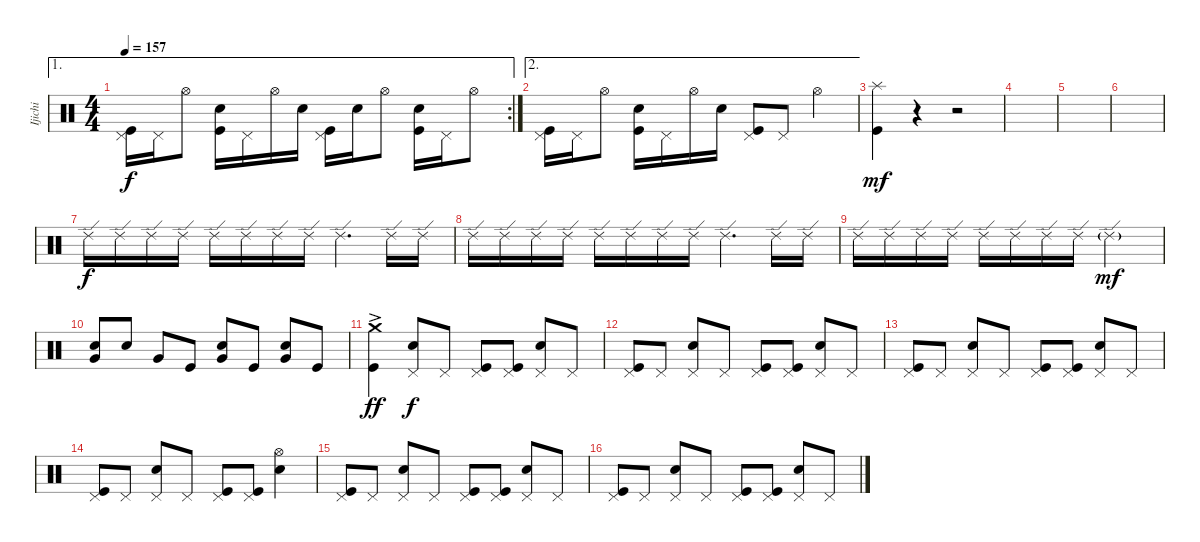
\track ("Ijichi" "Ijichi") {instrument percussion}
\staff {score}
\articulation defaults
\ae 1
\rc 2
\ts (4 4)
\tempo 157
\clef neutral
\ks c
("Pedal Hi-Hat (hit)" "Kick (hit)").16{dy f} "Pedal Hi-Hat (hit)".16 "Hi-Hat (open)".8 ("Snare (hit) 2" "Kick (hit)").16 "Pedal Hi-Hat (hit)".16 "Hi-Hat (open)".16 "Snare (hit) 2".16 ("Pedal Hi-Hat (hit)" "Kick (hit)").16 "Snare (hit) 2".16 "Hi-Hat (open)".8 ("Snare (hit) 2" "Kick (hit)").16 "Pedal Hi-Hat (hit)".16 "Hi-Hat (open)".8 |
\ae 2
("Pedal Hi-Hat (hit)" "Kick (hit)").16 "Pedal Hi-Hat (hit)".16 "Hi-Hat (open)".8 ("Snare (hit) 2" "Kick (hit)").16 "Pedal Hi-Hat (hit)".16 "Hi-Hat (open)".16 "Snare (hit) 2".16 ("Pedal Hi-Hat (hit)" "Kick (hit)").8 "Pedal Hi-Hat (hit)".8 "Hi-Hat (open)".4 |
("Splash (hit)" "Kick (hit)").4{dy mf} r.4 r.2 |
|
|
|
"Ride (edge) 2".16{dy f} "Ride (edge) 2".16 "Ride (edge) 2".16 "Ride (edge) 2".16 "Ride (edge) 2".16 "Ride (edge) 2".16 "Ride (edge) 2".16 "Ride (edge) 2".16 "Ride (edge) 2".4{d} "Ride (edge) 2".16 "Ride (edge) 2".16 |
"Ride (edge) 2".16 "Ride (edge) 2".16 "Ride (edge) 2".16 "Ride (edge) 2".16 "Ride (edge) 2".16 "Ride (edge) 2".16 "Ride (edge) 2".16 "Ride (edge) 2".16 "Ride (edge) 2".4{d} "Ride (edge) 2".16 "Ride (edge) 2".16 |
"Ride (edge) 2".16 "Ride (edge) 2".16 "Ride (edge) 2".16 "Ride (edge) 2".16 "Ride (edge) 2".16 "Ride (edge) 2".16 "Ride (edge) 2".16 "Ride (edge) 2".16 "Ride (edge) 2"{g}.2{dy mf} |
("Snare (hit) 2" "Very Low Tom (hit)").8 "Snare (hit) 2".8 "Very Low Tom (hit)".8 "Kick (hit)".8 ("Snare (hit) 2" "Very Low Tom (hit)").8 "Kick (hit)".8 ("Snare (hit) 2" "Very Low Tom (hit)").8 "Kick (hit)".8 |
("Crash medium (hit)"{ac} "Kick (hit)").4{dy ff} ("Pedal Hi-Hat (hit)" "Snare (hit) 2").8{dy f} "Pedal Hi-Hat (hit)".8 ("Pedal Hi-Hat (hit)" "Kick (hit)").8 ("Pedal Hi-Hat (hit)" "Kick (hit)").8 ("Pedal Hi-Hat (hit)" "Snare (hit) 2").8 "Pedal Hi-Hat (hit)".8 |
("Pedal Hi-Hat (hit)" "Kick (hit)").8 "Pedal Hi-Hat (hit)".8 ("Pedal Hi-Hat (hit)" "Snare (hit) 2").8 "Pedal Hi-Hat (hit)".8 ("Pedal Hi-Hat (hit)" "Kick (hit)").8 ("Pedal Hi-Hat (hit)" "Kick (hit)").8 ("Pedal Hi-Hat (hit)" "Snare (hit) 2").8 "Pedal Hi-Hat (hit)".8 |
("Pedal Hi-Hat (hit)" "Kick (hit)").8 "Pedal Hi-Hat (hit)".8 ("Pedal Hi-Hat (hit)" "Snare (hit) 2").8 "Pedal Hi-Hat (hit)".8 ("Pedal Hi-Hat (hit)" "Kick (hit)").8 ("Pedal Hi-Hat (hit)" "Kick (hit)").8 ("Pedal Hi-Hat (hit)" "Snare (hit) 2").8 "Pedal Hi-Hat (hit)".8 |
("Pedal Hi-Hat (hit)" "Kick (hit)").8 "Pedal Hi-Hat (hit)".8 ("Pedal Hi-Hat (hit)" "Snare (hit) 2").8 "Pedal Hi-Hat (hit)".8 ("Pedal Hi-Hat (hit)" "Kick (hit)").8 ("Pedal Hi-Hat (hit)" "Kick (hit)").8 ("Hi-Hat (open)" "Snare (hit) 2").4 |
("Pedal Hi-Hat (hit)" "Kick (hit)").8 "Pedal Hi-Hat (hit)".8 ("Pedal Hi-Hat (hit)" "Snare (hit) 2").8 "Pedal Hi-Hat (hit)".8 ("Pedal Hi-Hat (hit)" "Kick (hit)").8 ("Pedal Hi-Hat (hit)" "Kick (hit)").8 ("Pedal Hi-Hat (hit)" "Snare (hit) 2").8 "Pedal Hi-Hat (hit)".8 |
("Pedal Hi-Hat (hit)" "Kick (hit)").8 "Pedal Hi-Hat (hit)".8 ("Pedal Hi-Hat (hit)" "Snare (hit) 2").8 "Pedal Hi-Hat (hit)".8 ("Pedal Hi-Hat (hit)" "Kick (hit)").8 ("Pedal Hi-Hat (hit)" "Kick (hit)").8 ("Pedal Hi-Hat (hit)" "Snare (hit) 2").8 "Pedal Hi-Hat (hit)".8
